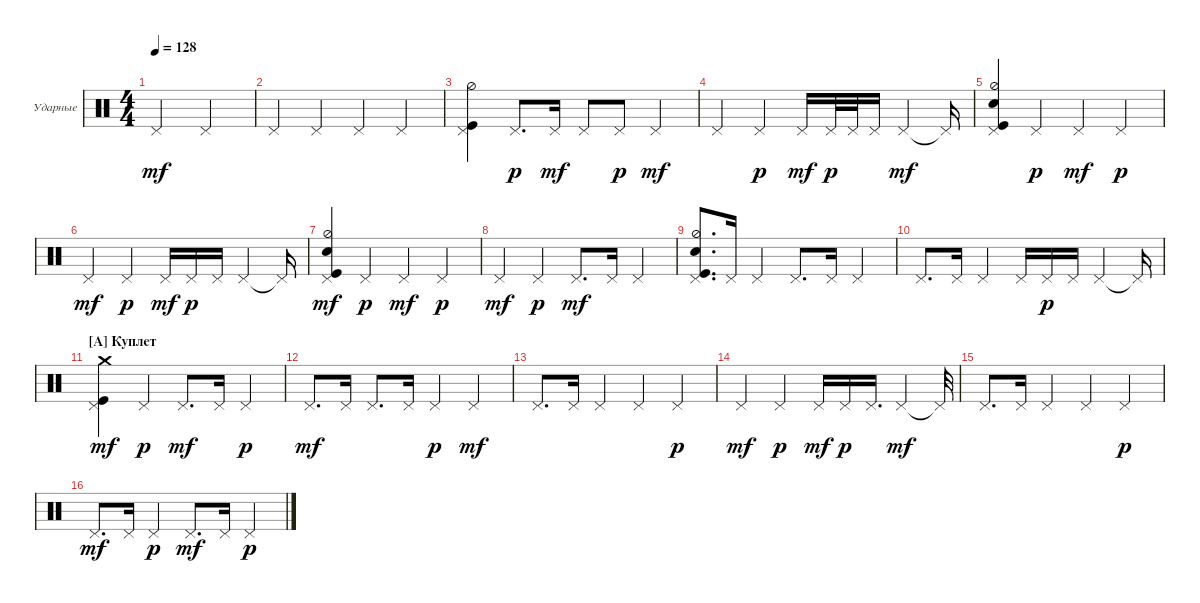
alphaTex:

\defaultSystemsLayout 4
\bracketExtendMode groupsimilarinstruments
\firstSystemTrackNameOrientation horizontal
\otherSystemsTrackNameOrientation horizontal
\track ("Е. Кулаков" "Ударные") {instrument percussion}
\staff {score}
\articulation defaults
\ts (4 4)
\tempo 128
\clef neutral
\ks c "Pedal Hi-Hat (hit)".2{dy mf} "Pedal Hi-Hat (hit)".2
|
"Pedal Hi-Hat (hit)".4 "Pedal Hi-Hat (hit)".4 "Pedal Hi-Hat (hit)".4 "Pedal Hi-Hat (hit)".4 |
("Kick (hit)" "Pedal Hi-Hat (hit)" "Hi-Hat (half)").4 "Pedal Hi-Hat (hit)".8{d dy p} "Pedal Hi-Hat (hit)".16{dy mf} "Pedal Hi-Hat (hit)".8 "Pedal Hi-Hat (hit)".8{dy p} "Pedal Hi-Hat (hit)".4{dy mf} |
"Pedal Hi-Hat (hit)".4 "Pedal Hi-Hat (hit)".4{dy p} "Pedal Hi-Hat (hit)".16{dy mf} "Pedal Hi-Hat (hit)".32{dy p} "Pedal Hi-Hat (hit)".32 "Pedal Hi-Hat (hit)".16 "Pedal Hi-Hat (hit)".4{dy mf} "Pedal Hi-Hat (hit)"{t}.16 |
("Snare (hit) 2" "Kick (hit)" "Pedal Hi-Hat (hit)" "Hi-Hat (half)").4 "Pedal Hi-Hat (hit)".4{dy p} "Pedal Hi-Hat (hit)".4{dy mf} "Pedal Hi-Hat (hit)".4{dy p} |
"Pedal Hi-Hat (hit)".4{dy mf} "Pedal Hi-Hat (hit)".4{dy p} "Pedal Hi-Hat (hit)".16{dy mf} "Pedal Hi-Hat (hit)".16{dy p} "Pedal Hi-Hat (hit)".16 "Pedal Hi-Hat (hit)".4 "Pedal Hi-Hat (hit)"{t}.16 |
("Snare (hit) 2" "Kick (hit)" "Pedal Hi-Hat (hit)" "Hi-Hat (half)").4{dy mf} "Pedal Hi-Hat (hit)".4{dy p} "Pedal Hi-Hat (hit)".4{dy mf} "Pedal Hi-Hat (hit)".4{dy p} |
"Pedal Hi-Hat (hit)".4{dy mf} "Pedal Hi-Hat (hit)".4{dy p} "Pedal Hi-Hat (hit)".8{d dy mf} "Pedal Hi-Hat (hit)".16 "Pedal Hi-Hat (hit)".4 |
("Snare (hit) 2" "Kick (hit)" "Pedal Hi-Hat (hit)" "Hi-Hat (half)").8{d} "Pedal Hi-Hat (hit)".16 "Pedal Hi-Hat (hit)".4 "Pedal Hi-Hat (hit)".8{d} "Pedal Hi-Hat (hit)".16 "Pedal Hi-Hat (hit)".4 |
"Pedal Hi-Hat (hit)".8{d} "Pedal Hi-Hat (hit)".16 "Pedal Hi-Hat (hit)".4 "Pedal Hi-Hat (hit)".16 "Pedal Hi-Hat (hit)".16{dy p} "Pedal Hi-Hat (hit)".16 "Pedal Hi-Hat (hit)".4 "Pedal Hi-Hat (hit)"{t}.16 |
\section ("A" "Куплет")
("Kick (hit)" "Crash medium (hit)" "Pedal Hi-Hat (hit)").4{dy mf} "Pedal Hi-Hat (hit)".4{dy p} "Pedal Hi-Hat (hit)".8{d dy mf} "Pedal Hi-Hat (hit)".16 "Pedal Hi-Hat (hit)".4{dy p} |
"Pedal Hi-Hat (hit)".8{d dy mf} "Pedal Hi-Hat (hit)".16 "Pedal Hi-Hat (hit)".8{d} "Pedal Hi-Hat (hit)".16 "Pedal Hi-Hat (hit)".4{dy p} "Pedal Hi-Hat (hit)".4{dy mf} |
"Pedal Hi-Hat (hit)".8{d} "Pedal Hi-Hat (hit)".16 "Pedal Hi-Hat (hit)".4 "Pedal Hi-Hat (hit)".4 "Pedal Hi-Hat (hit)".4{dy p} |
"Pedal Hi-Hat (hit)".4{dy mf} "Pedal Hi-Hat (hit)".4{dy p} "Pedal Hi-Hat (hit)".16{dy mf} "Pedal Hi-Hat (hit)".16{dy p} "Pedal Hi-Hat (hit)".16{d} "Pedal Hi-Hat (hit)".4{dy mf} "Pedal Hi-Hat (hit)"{t}.32 |
"Pedal Hi-Hat (hit)".8{d} "Pedal Hi-Hat (hit)".16 "Pedal Hi-Hat (hit)".4 "Pedal Hi-Hat (hit)".4 "Pedal Hi-Hat (hit)".4{dy p} |
"Pedal Hi-Hat (hit)".8{d dy mf} "Pedal Hi-Hat (hit)".16 "Pedal Hi-Hat (hit)".4{dy p} "Pedal Hi-Hat (hit)".8{d dy mf} "Pedal Hi-Hat (hit)".16 "Pedal Hi-Hat (hit)".4{dy p}
